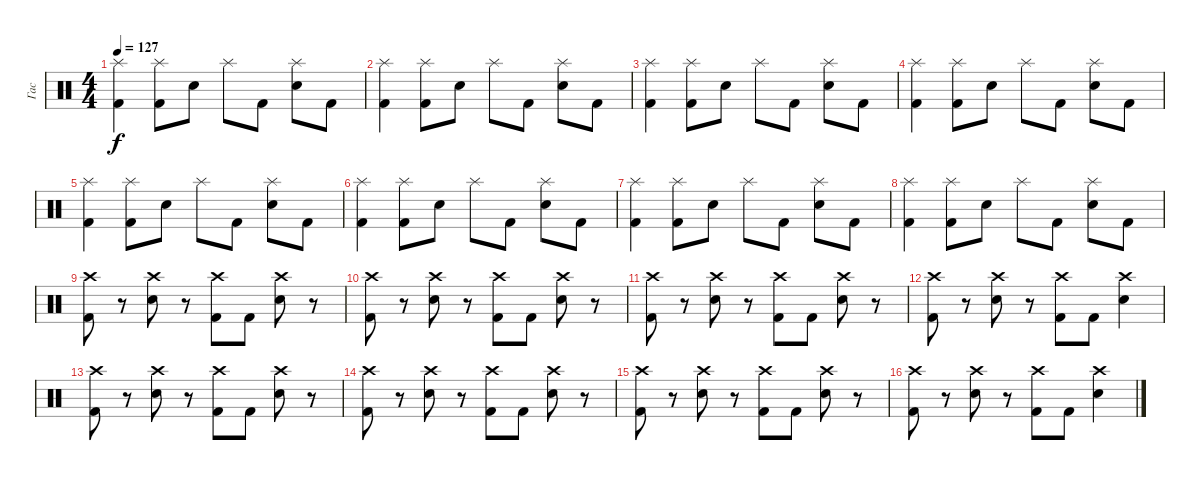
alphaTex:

\track ("Гас" "Гас") {instrument percussion}
\staff {score}
\articulation defaults
\ts (4 4)
\tempo 127
\clef neutral
\ks c
("Splash (hit)" "Kick (hit) 2").4{dy f} ("Splash (hit)" "Kick (hit) 2").8 "Electric Snare (hit)".8 "Splash (hit)".8 "Kick (hit) 2".8 ("Splash (hit)" "Electric Snare (hit)").8 "Kick (hit) 2".8 |
("Splash (hit)" "Kick (hit) 2").4 ("Splash (hit)" "Kick (hit) 2").8 "Electric Snare (hit)".8 "Splash (hit)".8 "Kick (hit) 2".8 ("Splash (hit)" "Electric Snare (hit)").8 "Kick (hit) 2".8 |
("Splash (hit)" "Kick (hit) 2").4 ("Splash (hit)" "Kick (hit) 2").8 "Electric Snare (hit)".8 "Splash (hit)".8 "Kick (hit) 2".8 ("Splash (hit)" "Electric Snare (hit)").8 "Kick (hit) 2".8 |
("Splash (hit)" "Kick (hit) 2").4 ("Splash (hit)" "Kick (hit) 2").8 "Electric Snare (hit)".8 "Splash (hit)".8 "Kick (hit) 2".8 ("Splash (hit)" "Electric Snare (hit)").8 "Kick (hit) 2".8 |
("Splash (hit)" "Kick (hit) 2").4 ("Splash (hit)" "Kick (hit) 2").8 "Electric Snare (hit)".8 "Splash (hit)".8 "Kick (hit) 2".8 ("Splash (hit)" "Electric Snare (hit)").8 "Kick (hit) 2".8 |
("Splash (hit)" "Kick (hit) 2").4 ("Splash (hit)" "Kick (hit) 2").8 "Electric Snare (hit)".8 "Splash (hit)".8 "Kick (hit) 2".8 ("Splash (hit)" "Electric Snare (hit)").8 "Kick (hit) 2".8 |
("Splash (hit)" "Kick (hit) 2").4 ("Splash (hit)" "Kick (hit) 2").8 "Electric Snare (hit)".8 "Splash (hit)".8 "Kick (hit) 2".8 ("Splash (hit)" "Electric Snare (hit)").8 "Kick (hit) 2".8 |
("Splash (hit)" "Kick (hit) 2").4 ("Splash (hit)" "Kick (hit) 2").8 "Electric Snare (hit)".8 "Splash (hit)".8 "Kick (hit) 2".8 ("Splash (hit)" "Electric Snare (hit)").8 "Kick (hit) 2".8 |
("Crash high (hit)" "Kick (hit) 2").8 r.8 ("Crash high (hit)" "Electric Snare (hit)").8 r.8 ("Crash high (hit)" "Kick (hit) 2").8 "Kick (hit) 2".8 ("Crash high (hit)" "Electric Snare (hit)").8 r.8 |
("Crash high (hit)" "Kick (hit) 2").8 r.8 ("Crash high (hit)" "Electric Snare (hit)").8 r.8 ("Crash high (hit)" "Kick (hit) 2").8 "Kick (hit) 2".8 ("Crash high (hit)" "Electric Snare (hit)").8 r.8 |
("Crash high (hit)" "Kick (hit) 2").8 r.8 ("Crash high (hit)" "Electric Snare (hit)").8 r.8 ("Crash high (hit)" "Kick (hit) 2").8 "Kick (hit) 2".8 ("Crash high (hit)" "Electric Snare (hit)").8 r.8 |
("Crash high (hit)" "Kick (hit) 2").8 r.8 ("Crash high (hit)" "Electric Snare (hit)").8 r.8 ("Crash high (hit)" "Kick (hit) 2").8 "Kick (hit) 2".8 ("Crash high (hit)" "Electric Snare (hit)").4 |
("Crash high (hit)" "Kick (hit) 2").8 r.8 ("Crash high (hit)" "Electric Snare (hit)").8 r.8 ("Crash high (hit)" "Kick (hit) 2").8 "Kick (hit) 2".8 ("Crash high (hit)" "Electric Snare (hit)").8 r.8 |
("Crash high (hit)" "Kick (hit) 2").8 r.8 ("Crash high (hit)" "Electric Snare (hit)").8 r.8 ("Crash high (hit)" "Kick (hit) 2").8 "Kick (hit) 2".8 ("Crash high (hit)" "Electric Snare (hit)").8 r.8 |
("Crash high (hit)" "Kick (hit) 2").8 r.8 ("Crash high (hit)" "Electric Snare (hit)").8 r.8 ("Crash high (hit)" "Kick (hit) 2").8 "Kick (hit) 2".8 ("Crash high (hit)" "Electric Snare (hit)").8 r.8 |
("Crash high (hit)" "Kick (hit) 2").8 r.8 ("Crash high (hit)" "Electric Snare (hit)").8 r.8 ("Crash high (hit)" "Kick (hit) 2").8 "Kick (hit) 2".8 ("Crash high (hit)" "Electric Snare (hit)").4
